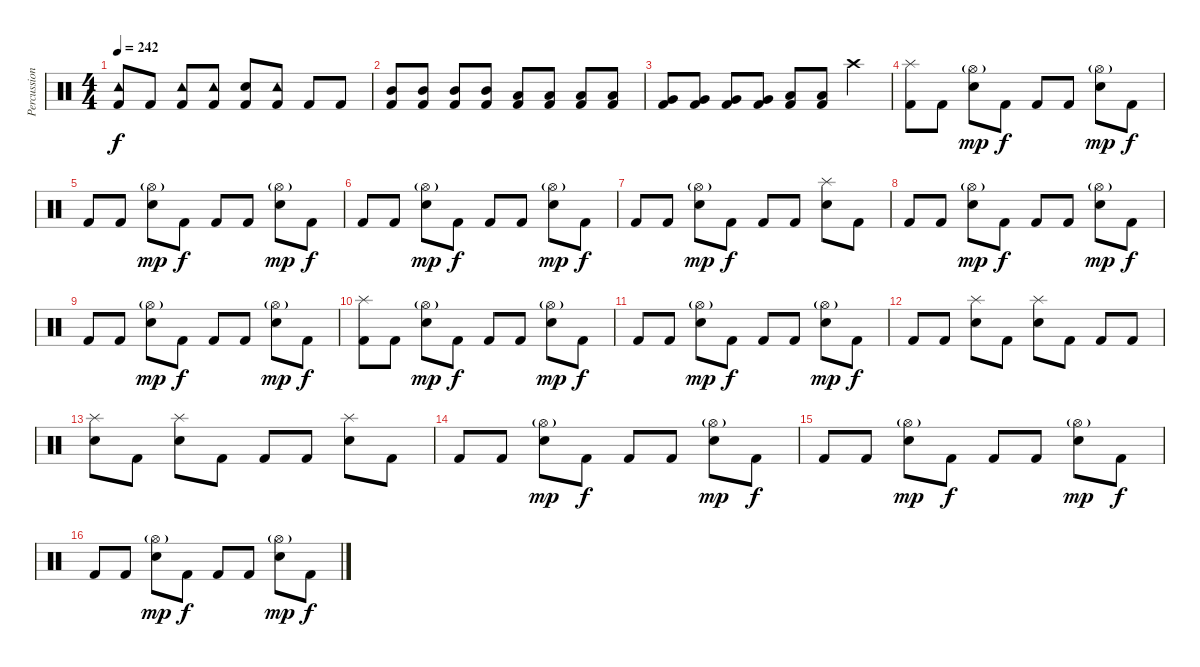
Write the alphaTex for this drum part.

\track ("Percussion" "Percussion") {instrument percussion}
\staff {score}
\articulation defaults
\ts (4 4)
\tempo 242
\clef neutral
\ks c
("Tambourine (hit)" "Kick (hit) 2").8{dy f} "Kick (hit) 2".8 ("Tambourine (hit)" "Kick (hit) 2").8 ("Tambourine (hit)" "Kick (hit) 2").8 ("Electric Snare (hit)" "Kick (hit) 2").8 ("Tambourine (hit)" "Kick (hit) 2").8 "Kick (hit) 2".8 "Kick (hit) 2".8 |
("Mid Tom (hit)" "Kick (hit) 2").8 ("Mid Tom (hit)" "Kick (hit) 2").8 ("Mid Tom (hit)" "Kick (hit) 2").8 ("Mid Tom (hit)" "Kick (hit) 2").8 ("Low Tom (hit)" "Kick (hit) 2").8 ("Low Tom (hit)" "Kick (hit) 2").8 ("Low Tom (hit)" "Kick (hit) 2").8 ("Low Tom (hit)" "Kick (hit) 2").8 |
("Very Low Tom (hit)" "Kick (hit) 2").8 ("Very Low Tom (hit)" "Kick (hit) 2").8 ("Very Low Tom (hit)" "Kick (hit) 2").8 ("Very Low Tom (hit)" "Kick (hit) 2").8 ("Low Floor Tom (hit)" "Kick (hit) 2").8 ("Low Floor Tom (hit)" "Kick (hit) 2").8 "Crash high (hit)".4 |
("Splash (hit)" "Kick (hit) 2").8 "Kick (hit) 2".8 ("Hi-Hat (open)"{g} "Electric Snare (hit)").8{dy mp} "Kick (hit) 2".8{dy f} "Kick (hit) 2".8 "Kick (hit) 2".8 ("Hi-Hat (open)"{g} "Electric Snare (hit)").8{dy mp} "Kick (hit) 2".8{dy f} |
"Kick (hit) 2".8 "Kick (hit) 2".8 ("Hi-Hat (open)"{g} "Electric Snare (hit)").8{dy mp} "Kick (hit) 2".8{dy f} "Kick (hit) 2".8 "Kick (hit) 2".8 ("Hi-Hat (open)"{g} "Electric Snare (hit)").8{dy mp} "Kick (hit) 2".8{dy f} |
"Kick (hit) 2".8 "Kick (hit) 2".8 ("Hi-Hat (open)"{g} "Electric Snare (hit)").8{dy mp} "Kick (hit) 2".8{dy f} "Kick (hit) 2".8 "Kick (hit) 2".8 ("Hi-Hat (open)"{g} "Electric Snare (hit)").8{dy mp} "Kick (hit) 2".8{dy f} |
"Kick (hit) 2".8 "Kick (hit) 2".8 ("Hi-Hat (open)"{g} "Electric Snare (hit)").8{dy mp} "Kick (hit) 2".8{dy f} "Kick (hit) 2".8 "Kick (hit) 2".8 ("Splash (hit)" "Electric Snare (hit)").8 "Kick (hit) 2".8 |
"Kick (hit) 2".8 "Kick (hit) 2".8 ("Hi-Hat (open)"{g} "Electric Snare (hit)").8{dy mp} "Kick (hit) 2".8{dy f} "Kick (hit) 2".8 "Kick (hit) 2".8 ("Hi-Hat (open)"{g} "Electric Snare (hit)").8{dy mp} "Kick (hit) 2".8{dy f} |
"Kick (hit) 2".8 "Kick (hit) 2".8 ("Hi-Hat (open)"{g} "Electric Snare (hit)").8{dy mp} "Kick (hit) 2".8{dy f} "Kick (hit) 2".8 "Kick (hit) 2".8 ("Hi-Hat (open)"{g} "Electric Snare (hit)").8{dy mp} "Kick (hit) 2".8{dy f} |
("Splash (hit)" "Kick (hit) 2").8 "Kick (hit) 2".8 ("Hi-Hat (open)"{g} "Electric Snare (hit)").8{dy mp} "Kick (hit) 2".8{dy f} "Kick (hit) 2".8 "Kick (hit) 2".8 ("Hi-Hat (open)"{g} "Electric Snare (hit)").8{dy mp} "Kick (hit) 2".8{dy f} |
"Kick (hit) 2".8 "Kick (hit) 2".8 ("Hi-Hat (open)"{g} "Electric Snare (hit)").8{dy mp} "Kick (hit) 2".8{dy f} "Kick (hit) 2".8 "Kick (hit) 2".8 ("Hi-Hat (open)"{g} "Electric Snare (hit)").8{dy mp} "Kick (hit) 2".8{dy f} |
"Kick (hit) 2".8 "Kick (hit) 2".8 ("Splash (hit)" "Electric Snare (hit)").8 "Kick (hit) 2".8 ("Splash (hit)" "Electric Snare (hit)").8 "Kick (hit) 2".8 "Kick (hit) 2".8 "Kick (hit) 2".8 |
("Splash (hit)" "Electric Snare (hit)").8 "Kick (hit) 2".8 ("Splash (hit)" "Electric Snare (hit)").8 "Kick (hit) 2".8 "Kick (hit) 2".8 "Kick (hit) 2".8 ("Splash (hit)" "Electric Snare (hit)").8 "Kick (hit) 2".8 |
"Kick (hit) 2".8 "Kick (hit) 2".8 ("Hi-Hat (open)"{g} "Electric Snare (hit)").8{dy mp} "Kick (hit) 2".8{dy f} "Kick (hit) 2".8 "Kick (hit) 2".8 ("Hi-Hat (open)"{g} "Electric Snare (hit)").8{dy mp} "Kick (hit) 2".8{dy f} |
"Kick (hit) 2".8 "Kick (hit) 2".8 ("Hi-Hat (open)"{g} "Electric Snare (hit)").8{dy mp} "Kick (hit) 2".8{dy f} "Kick (hit) 2".8 "Kick (hit) 2".8 ("Hi-Hat (open)"{g} "Electric Snare (hit)").8{dy mp} "Kick (hit) 2".8{dy f} |
"Kick (hit) 2".8 "Kick (hit) 2".8 ("Hi-Hat (open)"{g} "Electric Snare (hit)").8{dy mp} "Kick (hit) 2".8{dy f} "Kick (hit) 2".8 "Kick (hit) 2".8 ("Hi-Hat (open)"{g} "Electric Snare (hit)").8{dy mp} "Kick (hit) 2".8{dy f}
